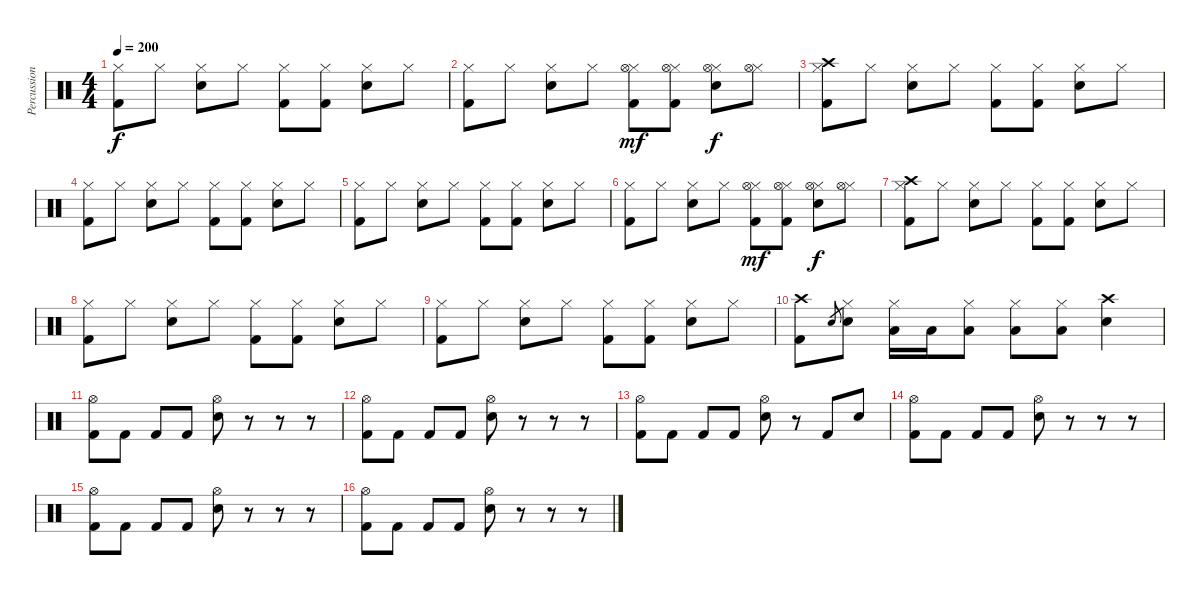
\track ("Percussions" "Percussion") {instrument percussion}
\staff {score}
\articulation defaults
\ts (4 4)
\tempo 200
\clef neutral
\ks c
("Hi-Hat (closed)" "Kick (hit) 2").8{dy f} "Hi-Hat (closed)".8 ("Hi-Hat (closed)" "Electric Snare (hit)").8 "Hi-Hat (closed)".8 ("Hi-Hat (closed)" "Kick (hit) 2").8 ("Hi-Hat (closed)" "Kick (hit) 2").8 ("Hi-Hat (closed)" "Electric Snare (hit)").8 "Hi-Hat (closed)".8 |
("Hi-Hat (closed)" "Kick (hit) 2").8 "Hi-Hat (closed)".8 ("Hi-Hat (closed)" "Electric Snare (hit)").8 "Hi-Hat (closed)".8 ("Hi-Hat (closed)" "Hi-Hat (open)" "Kick (hit) 2").8{dy mf} ("Hi-Hat (closed)" "Hi-Hat (open)" "Kick (hit) 2").8 ("Hi-Hat (closed)" "Hi-Hat (open)" "Electric Snare (hit)").8{dy f} ("Hi-Hat (closed)" "Hi-Hat (open)").8 |
("Crash high (hit)" "Hi-Hat (closed)" "Kick (hit) 2").8 "Hi-Hat (closed)".8 ("Hi-Hat (closed)" "Electric Snare (hit)").8 "Hi-Hat (closed)".8 ("Hi-Hat (closed)" "Kick (hit) 2").8 ("Hi-Hat (closed)" "Kick (hit) 2").8 ("Hi-Hat (closed)" "Electric Snare (hit)").8 "Hi-Hat (closed)".8 |
("Hi-Hat (closed)" "Kick (hit) 2").8 "Hi-Hat (closed)".8 ("Hi-Hat (closed)" "Electric Snare (hit)").8 "Hi-Hat (closed)".8 ("Hi-Hat (closed)" "Kick (hit) 2").8 ("Hi-Hat (closed)" "Kick (hit) 2").8 ("Hi-Hat (closed)" "Electric Snare (hit)").8 "Hi-Hat (closed)".8 |
("Hi-Hat (closed)" "Kick (hit) 2").8 "Hi-Hat (closed)".8 ("Hi-Hat (closed)" "Electric Snare (hit)").8 "Hi-Hat (closed)".8 ("Hi-Hat (closed)" "Kick (hit) 2").8 ("Hi-Hat (closed)" "Kick (hit) 2").8 ("Hi-Hat (closed)" "Electric Snare (hit)").8 "Hi-Hat (closed)".8 |
("Hi-Hat (closed)" "Kick (hit) 2").8 "Hi-Hat (closed)".8 ("Hi-Hat (closed)" "Electric Snare (hit)").8 "Hi-Hat (closed)".8 ("Hi-Hat (closed)" "Hi-Hat (open)" "Kick (hit) 2").8{dy mf} ("Hi-Hat (closed)" "Hi-Hat (open)" "Kick (hit) 2").8 ("Hi-Hat (closed)" "Hi-Hat (open)" "Electric Snare (hit)").8{dy f} ("Hi-Hat (closed)" "Hi-Hat (open)").8 |
("Crash high (hit)" "Hi-Hat (closed)" "Kick (hit) 2").8 "Hi-Hat (closed)".8 ("Hi-Hat (closed)" "Electric Snare (hit)").8 "Hi-Hat (closed)".8 ("Hi-Hat (closed)" "Kick (hit) 2").8 ("Hi-Hat (closed)" "Kick (hit) 2").8 ("Hi-Hat (closed)" "Electric Snare (hit)").8 "Hi-Hat (closed)".8 |
("Hi-Hat (closed)" "Kick (hit) 2").8 "Hi-Hat (closed)".8 ("Hi-Hat (closed)" "Electric Snare (hit)").8 "Hi-Hat (closed)".8 ("Hi-Hat (closed)" "Kick (hit) 2").8 ("Hi-Hat (closed)" "Kick (hit) 2").8 ("Hi-Hat (closed)" "Electric Snare (hit)").8 "Hi-Hat (closed)".8 |
("Hi-Hat (closed)" "Kick (hit) 2").8 "Hi-Hat (closed)".8 ("Hi-Hat (closed)" "Electric Snare (hit)").8 "Hi-Hat (closed)".8 ("Hi-Hat (closed)" "Kick (hit) 2").8 ("Hi-Hat (closed)" "Kick (hit) 2").8 ("Hi-Hat (closed)" "Electric Snare (hit)").8 "Hi-Hat (closed)".8 |
("Crash high (hit)" "Kick (hit) 2").8 "Electric Snare (hit)".8{gr} ("Hi-Hat (closed)" "Electric Snare (hit)").8 ("Hi-Hat (closed)" "Low Floor Tom (hit)").16 "Low Floor Tom (hit)".16 ("Hi-Hat (closed)" "Low Floor Tom (hit)").8 ("Hi-Hat (closed)" "Low Floor Tom (hit)").8 ("Hi-Hat (closed)" "Low Floor Tom (hit)").8 ("Crash high (hit)" "Electric Snare (hit)").4 |
("Hi-Hat (open)" "Kick (hit) 2").8 "Kick (hit) 2".8 "Kick (hit) 2".8 "Kick (hit) 2".8 ("Hi-Hat (open)" "Electric Snare (hit)").8 r.8 r.8 r.8 |
("Hi-Hat (open)" "Kick (hit) 2").8 "Kick (hit) 2".8 "Kick (hit) 2".8 "Kick (hit) 2".8 ("Hi-Hat (open)" "Electric Snare (hit)").8 r.8 r.8 r.8 |
("Hi-Hat (open)" "Kick (hit) 2").8 "Kick (hit) 2".8 "Kick (hit) 2".8 "Kick (hit) 2".8 ("Hi-Hat (open)" "Electric Snare (hit)").8 r.8 "Kick (hit) 2".8 "Electric Snare (hit)".8 |
("Hi-Hat (open)" "Kick (hit) 2").8 "Kick (hit) 2".8 "Kick (hit) 2".8 "Kick (hit) 2".8 ("Hi-Hat (open)" "Electric Snare (hit)").8 r.8 r.8 r.8 |
("Hi-Hat (open)" "Kick (hit) 2").8 "Kick (hit) 2".8 "Kick (hit) 2".8 "Kick (hit) 2".8 ("Hi-Hat (open)" "Electric Snare (hit)").8 r.8 r.8 r.8 |
("Hi-Hat (open)" "Kick (hit) 2").8 "Kick (hit) 2".8 "Kick (hit) 2".8 "Kick (hit) 2".8 ("Hi-Hat (open)" "Electric Snare (hit)").8 r.8 r.8 r.8
